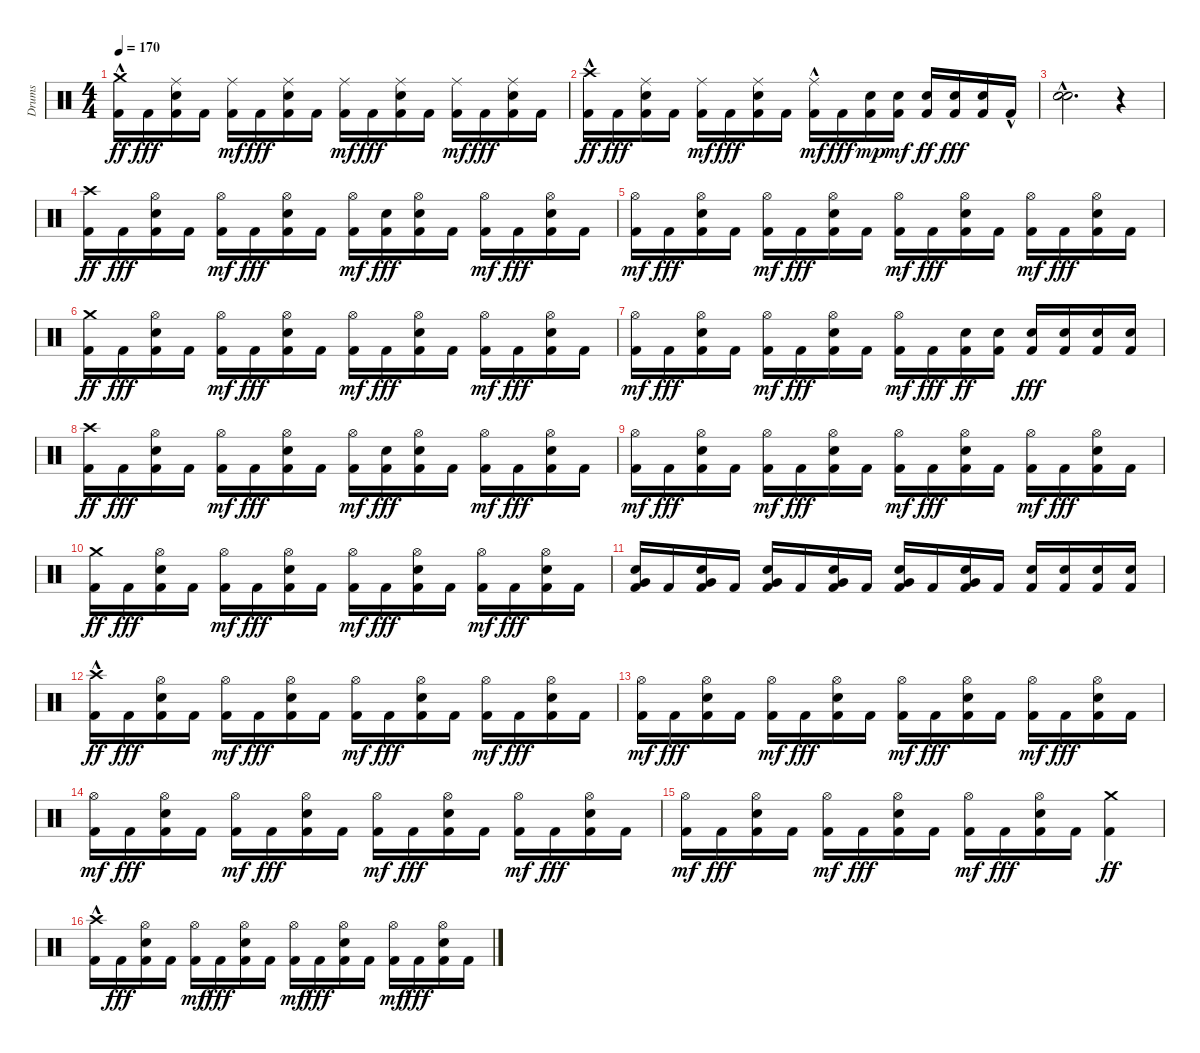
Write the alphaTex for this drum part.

\track ("Drums" "Drums") {instrument percussion}
\staff {score}
\articulation defaults
\ts (4 4)
\tempo 170
\clef neutral
\ks c
("Kick (hit) 2" "Crash medium (hit)"{hac}).16{dy ff} "Kick (hit) 2".16{dy fff} ("Kick (hit) 2" "Snare (hit) 2" "Ride (middle)").16 "Kick (hit) 2".16 ("Kick (hit) 2" "Ride (middle)").16{dy mf} "Kick (hit) 2".16{dy fff} ("Kick (hit) 2" "Snare (hit) 2" "Ride (middle)").16 "Kick (hit) 2".16 ("Kick (hit) 2" "Ride (middle)").16{dy mf} "Kick (hit) 2".16{dy fff} ("Kick (hit) 2" "Snare (hit) 2" "Ride (middle)").16 "Kick (hit) 2".16 ("Kick (hit) 2" "Ride (middle)").16{dy mf} "Kick (hit) 2".16{dy fff} ("Kick (hit) 2" "Snare (hit) 2" "Ride (middle)").16 "Kick (hit) 2".16 |
("Kick (hit) 2" "Crash high (hit)"{hac}).16{dy ff} "Kick (hit) 2".16{dy fff} ("Kick (hit) 2" "Snare (hit) 2" "Ride (middle)").16 "Kick (hit) 2".16 ("Kick (hit) 2" "Ride (middle)").16{dy mf} "Kick (hit) 2".16{dy fff} ("Kick (hit) 2" "Snare (hit) 2" "Ride (middle)").16 "Kick (hit) 2".16 ("Kick (hit) 2" "Ride (middle)"{hac}).16{dy mf} "Kick (hit) 2".16{dy fff} ("Kick (hit) 2" "Snare (hit) 2").16{dy mp} ("Kick (hit) 2" "Snare (hit) 2").16{dy mf} ("Kick (hit) 2" "Snare (hit) 2").16{dy ff} ("Kick (hit) 2" "Snare (hit) 2").16{dy fff} ("Kick (hit) 2" "Snare (hit) 2").16 "Kick (hit) 2"{hac}.16 |
("Snare (hit) 2" "Snare (hit) 2"{hac}).2{d} r.4 |
("Kick (hit) 2" "Crash high (hit)").16{dy ff} "Kick (hit) 2".16{dy fff} ("Kick (hit) 2" "Snare (hit) 2" "Hi-Hat (open)").16 "Kick (hit) 2".16 ("Kick (hit) 2" "Hi-Hat (open)").16{dy mf} "Kick (hit) 2".16{dy fff} ("Kick (hit) 2" "Snare (hit) 2" "Hi-Hat (open)").16 "Kick (hit) 2".16 ("Kick (hit) 2" "Hi-Hat (open)").16{dy mf} ("Snare (hit)" "Kick (hit) 2").16{dy fff} ("Kick (hit) 2" "Snare (hit) 2" "Hi-Hat (open)").16 "Kick (hit) 2".16 ("Kick (hit) 2" "Hi-Hat (open)").16{dy mf} "Kick (hit) 2".16{dy fff} ("Kick (hit) 2" "Snare (hit) 2" "Hi-Hat (open)").16 "Kick (hit) 2".16 |
("Kick (hit) 2" "Hi-Hat (open)").16{dy mf} "Kick (hit) 2".16{dy fff} ("Kick (hit) 2" "Snare (hit) 2" "Hi-Hat (open)").16 "Kick (hit) 2".16 ("Kick (hit) 2" "Hi-Hat (open)").16{dy mf} "Kick (hit) 2".16{dy fff} ("Kick (hit) 2" "Snare (hit) 2" "Hi-Hat (open)").16 "Kick (hit) 2".16 ("Kick (hit) 2" "Hi-Hat (open)").16{dy mf} "Kick (hit) 2".16{dy fff} ("Kick (hit) 2" "Snare (hit) 2" "Hi-Hat (open)").16 "Kick (hit) 2".16 ("Kick (hit) 2" "Hi-Hat (open)").16{dy mf} "Kick (hit) 2".16{dy fff} ("Kick (hit) 2" "Snare (hit) 2" "Hi-Hat (open)").16 "Kick (hit) 2".16 |
("Kick (hit) 2" "Crash medium (hit)").16{dy ff} "Kick (hit) 2".16{dy fff} ("Kick (hit) 2" "Snare (hit) 2" "Hi-Hat (open)").16 "Kick (hit) 2".16 ("Kick (hit) 2" "Hi-Hat (open)").16{dy mf} "Kick (hit) 2".16{dy fff} ("Kick (hit) 2" "Snare (hit) 2" "Hi-Hat (open)").16 "Kick (hit) 2".16 ("Kick (hit) 2" "Hi-Hat (open)").16{dy mf} "Kick (hit) 2".16{dy fff} ("Kick (hit) 2" "Snare (hit) 2" "Hi-Hat (open)").16 "Kick (hit) 2".16 ("Kick (hit) 2" "Hi-Hat (open)").16{dy mf} "Kick (hit) 2".16{dy fff} ("Kick (hit) 2" "Snare (hit) 2" "Hi-Hat (open)").16 "Kick (hit) 2".16 |
("Kick (hit) 2" "Hi-Hat (open)").16{dy mf} "Kick (hit) 2".16{dy fff} ("Kick (hit) 2" "Snare (hit) 2" "Hi-Hat (open)").16 "Kick (hit) 2".16 ("Kick (hit) 2" "Hi-Hat (open)").16{dy mf} "Kick (hit) 2".16{dy fff} ("Kick (hit) 2" "Snare (hit) 2" "Hi-Hat (open)").16 "Kick (hit) 2".16 ("Kick (hit) 2" "Hi-Hat (open)").16{dy mf} "Kick (hit) 2".16{dy fff} ("Kick (hit) 2" "Snare (hit) 2").16{dy ff} ("Kick (hit) 2" "Snare (hit) 2").16 ("Kick (hit) 2" "Snare (hit) 2").16{dy fff} ("Kick (hit) 2" "Snare (hit) 2").16 ("Kick (hit) 2" "Snare (hit) 2").16 ("Kick (hit) 2" "Snare (hit) 2").16 |
("Kick (hit) 2" "Crash high (hit)").16{dy ff} "Kick (hit) 2".16{dy fff} ("Kick (hit) 2" "Snare (hit) 2" "Hi-Hat (open)").16 "Kick (hit) 2".16 ("Kick (hit) 2" "Hi-Hat (open)").16{dy mf} "Kick (hit) 2".16{dy fff} ("Kick (hit) 2" "Snare (hit) 2" "Hi-Hat (open)").16 "Kick (hit) 2".16 ("Kick (hit) 2" "Hi-Hat (open)").16{dy mf} ("Snare (hit)" "Kick (hit) 2").16{dy fff} ("Kick (hit) 2" "Snare (hit) 2" "Hi-Hat (open)").16 "Kick (hit) 2".16 ("Kick (hit) 2" "Hi-Hat (open)").16{dy mf} "Kick (hit) 2".16{dy fff} ("Kick (hit) 2" "Snare (hit) 2" "Hi-Hat (open)").16 "Kick (hit) 2".16 |
("Kick (hit) 2" "Hi-Hat (open)").16{dy mf} "Kick (hit) 2".16{dy fff} ("Kick (hit) 2" "Snare (hit) 2" "Hi-Hat (open)").16 "Kick (hit) 2".16 ("Kick (hit) 2" "Hi-Hat (open)").16{dy mf} "Kick (hit) 2".16{dy fff} ("Kick (hit) 2" "Snare (hit) 2" "Hi-Hat (open)").16 "Kick (hit) 2".16 ("Kick (hit) 2" "Hi-Hat (open)").16{dy mf} "Kick (hit) 2".16{dy fff} ("Kick (hit) 2" "Snare (hit) 2" "Hi-Hat (open)").16 "Kick (hit) 2".16 ("Kick (hit) 2" "Hi-Hat (open)").16{dy mf} "Kick (hit) 2".16{dy fff} ("Kick (hit) 2" "Snare (hit) 2" "Hi-Hat (open)").16 "Kick (hit) 2".16 |
("Kick (hit) 2" "Crash medium (hit)").16{dy ff} "Kick (hit) 2".16{dy fff} ("Kick (hit) 2" "Snare (hit) 2" "Hi-Hat (open)").16 "Kick (hit) 2".16 ("Kick (hit) 2" "Hi-Hat (open)").16{dy mf} "Kick (hit) 2".16{dy fff} ("Kick (hit) 2" "Snare (hit) 2" "Hi-Hat (open)").16 "Kick (hit) 2".16 ("Kick (hit) 2" "Hi-Hat (open)").16{dy mf} "Kick (hit) 2".16{dy fff} ("Kick (hit) 2" "Snare (hit) 2" "Hi-Hat (open)").16 "Kick (hit) 2".16 ("Kick (hit) 2" "Hi-Hat (open)").16{dy mf} "Kick (hit) 2".16{dy fff} ("Kick (hit) 2" "Snare (hit) 2" "Hi-Hat (open)").16 "Kick (hit) 2".16 |
("Kick (hit) 2" "Snare (hit) 2" "Very Low Tom (hit)").16 "Kick (hit) 2".16 ("Kick (hit) 2" "Snare (hit) 2" "Very Low Tom (hit)").16 "Kick (hit) 2".16 ("Kick (hit) 2" "Snare (hit) 2" "Very Low Tom (hit)").16 "Kick (hit) 2".16 ("Kick (hit) 2" "Snare (hit) 2" "Very Low Tom (hit)").16 "Kick (hit) 2".16 ("Kick (hit) 2" "Snare (hit) 2" "Very Low Tom (hit)").16 "Kick (hit) 2".16 ("Kick (hit) 2" "Snare (hit) 2" "Very Low Tom (hit)").16 "Kick (hit) 2".16 ("Kick (hit) 2" "Snare (hit) 2").16 ("Kick (hit) 2" "Snare (hit) 2").16 ("Kick (hit) 2" "Snare (hit) 2").16 ("Kick (hit) 2" "Snare (hit) 2").16 |
("Kick (hit) 2" "Crash high (hit)"{hac}).16{dy ff} "Kick (hit) 2".16{dy fff} ("Kick (hit) 2" "Snare (hit) 2" "Hi-Hat (open)").16 "Kick (hit) 2".16 ("Kick (hit) 2" "Hi-Hat (open)").16{dy mf} "Kick (hit) 2".16{dy fff} ("Kick (hit) 2" "Snare (hit) 2" "Hi-Hat (open)").16 "Kick (hit) 2".16 ("Kick (hit) 2" "Hi-Hat (open)").16{dy mf} "Kick (hit) 2".16{dy fff} ("Kick (hit) 2" "Snare (hit) 2" "Hi-Hat (open)").16 "Kick (hit) 2".16 ("Kick (hit) 2" "Hi-Hat (open)").16{dy mf} "Kick (hit) 2".16{dy fff} ("Kick (hit) 2" "Snare (hit) 2" "Hi-Hat (open)").16 "Kick (hit) 2".16 |
("Kick (hit) 2" "Hi-Hat (open)").16{dy mf} "Kick (hit) 2".16{dy fff} ("Kick (hit) 2" "Snare (hit) 2" "Hi-Hat (open)").16 "Kick (hit) 2".16 ("Kick (hit) 2" "Hi-Hat (open)").16{dy mf} "Kick (hit) 2".16{dy fff} ("Kick (hit) 2" "Snare (hit) 2" "Hi-Hat (open)").16 "Kick (hit) 2".16 ("Kick (hit) 2" "Hi-Hat (open)").16{dy mf} "Kick (hit) 2".16{dy fff} ("Kick (hit) 2" "Snare (hit) 2" "Hi-Hat (open)").16 "Kick (hit) 2".16 ("Kick (hit) 2" "Hi-Hat (open)").16{dy mf} "Kick (hit) 2".16{dy fff} ("Kick (hit) 2" "Snare (hit) 2" "Hi-Hat (open)").16 "Kick (hit) 2".16 |
("Kick (hit) 2" "Hi-Hat (open)").16{dy mf} "Kick (hit) 2".16{dy fff} ("Kick (hit) 2" "Snare (hit) 2" "Hi-Hat (open)").16 "Kick (hit) 2".16 ("Kick (hit) 2" "Hi-Hat (open)").16{dy mf} "Kick (hit) 2".16{dy fff} ("Kick (hit) 2" "Snare (hit) 2" "Hi-Hat (open)").16 "Kick (hit) 2".16 ("Kick (hit) 2" "Hi-Hat (open)").16{dy mf} "Kick (hit) 2".16{dy fff} ("Kick (hit) 2" "Snare (hit) 2" "Hi-Hat (open)").16 "Kick (hit) 2".16 ("Kick (hit) 2" "Hi-Hat (open)").16{dy mf} "Kick (hit) 2".16{dy fff} ("Kick (hit) 2" "Snare (hit) 2" "Hi-Hat (open)").16 "Kick (hit) 2".16 |
("Kick (hit) 2" "Hi-Hat (open)").16{dy mf} "Kick (hit) 2".16{dy fff} ("Kick (hit) 2" "Snare (hit) 2" "Hi-Hat (open)").16 "Kick (hit) 2".16 ("Kick (hit) 2" "Hi-Hat (open)").16{dy mf} "Kick (hit) 2".16{dy fff} ("Kick (hit) 2" "Snare (hit) 2" "Hi-Hat (open)").16 "Kick (hit) 2".16 ("Kick (hit) 2" "Hi-Hat (open)").16{dy mf} "Kick (hit) 2".16{dy fff} ("Kick (hit) 2" "Snare (hit) 2" "Hi-Hat (open)").16 "Kick (hit) 2".16 ("Kick (hit) 2" "Crash medium (hit)").4{dy ff} |
("Kick (hit) 2" "Crash high (hit)"{hac}).16 "Kick (hit) 2".16{dy fff} ("Kick (hit) 2" "Snare (hit) 2" "Hi-Hat (open)").16 "Kick (hit) 2".16 ("Kick (hit) 2" "Hi-Hat (open)").16{dy mf} "Kick (hit) 2".16{dy fff} ("Kick (hit) 2" "Snare (hit) 2" "Hi-Hat (open)").16 "Kick (hit) 2".16 ("Kick (hit) 2" "Hi-Hat (open)").16{dy mf} "Kick (hit) 2".16{dy fff} ("Kick (hit) 2" "Snare (hit) 2" "Hi-Hat (open)").16 "Kick (hit) 2".16 ("Kick (hit) 2" "Hi-Hat (open)").16{dy mf} "Kick (hit) 2".16{dy fff} ("Kick (hit) 2" "Snare (hit) 2" "Hi-Hat (open)").16 "Kick (hit) 2".16
